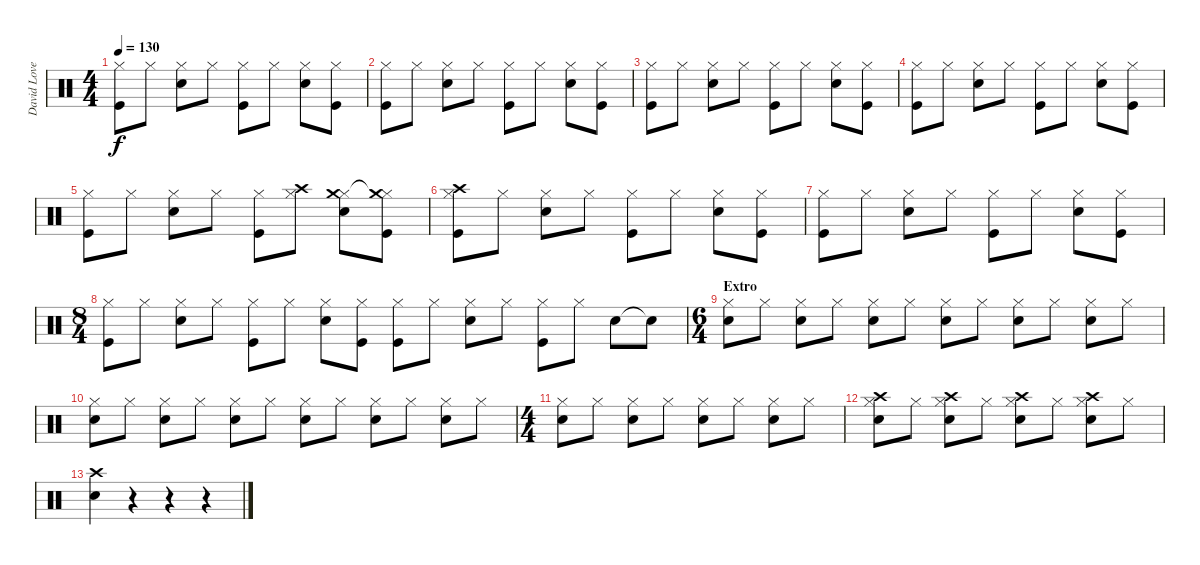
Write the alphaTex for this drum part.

\track ("David Lovering" "David Love") {instrument percussion}
\staff {score}
\articulation defaults
\ts (4 4)
\tempo 130
\clef neutral
\ks c
("Hi-Hat (closed)" "Kick (hit)").8{dy f} "Hi-Hat (closed)".8 ("Hi-Hat (closed)" "Snare (hit) 2").8 "Hi-Hat (closed)".8 ("Hi-Hat (closed)" "Kick (hit)").8 "Hi-Hat (closed)".8 ("Hi-Hat (closed)" "Snare (hit) 2").8 ("Hi-Hat (closed)" "Kick (hit)").8 |
("Hi-Hat (closed)" "Kick (hit)").8 "Hi-Hat (closed)".8 ("Hi-Hat (closed)" "Snare (hit) 2").8 "Hi-Hat (closed)".8 ("Hi-Hat (closed)" "Kick (hit)").8 "Hi-Hat (closed)".8 ("Hi-Hat (closed)" "Snare (hit) 2").8 ("Hi-Hat (closed)" "Kick (hit)").8 |
("Hi-Hat (closed)" "Kick (hit)").8 "Hi-Hat (closed)".8 ("Hi-Hat (closed)" "Snare (hit) 2").8 "Hi-Hat (closed)".8 ("Hi-Hat (closed)" "Kick (hit)").8 "Hi-Hat (closed)".8 ("Hi-Hat (closed)" "Snare (hit) 2").8 ("Hi-Hat (closed)" "Kick (hit)").8 |
("Hi-Hat (closed)" "Kick (hit)").8 "Hi-Hat (closed)".8 ("Hi-Hat (closed)" "Snare (hit) 2").8 "Hi-Hat (closed)".8 ("Hi-Hat (closed)" "Kick (hit)").8 "Hi-Hat (closed)".8 ("Hi-Hat (closed)" "Snare (hit) 2").8 ("Hi-Hat (closed)" "Kick (hit)").8 |
("Hi-Hat (closed)" "Kick (hit)").8 "Hi-Hat (closed)".8 ("Hi-Hat (closed)" "Snare (hit) 2").8 "Hi-Hat (closed)".8 ("Hi-Hat (closed)" "Kick (hit)").8 ("Hi-Hat (closed)" "Crash high (hit)").8 ("Hi-Hat (closed)" "Crash medium (hit)" "Snare (hit) 2").8 ("Hi-Hat (closed)" "Crash medium (hit)"{t} "Kick (hit)").8 |
("Hi-Hat (closed)" "Crash high (hit)" "Kick (hit)").8 "Hi-Hat (closed)".8 ("Hi-Hat (closed)" "Snare (hit) 2").8 "Hi-Hat (closed)".8 ("Hi-Hat (closed)" "Kick (hit)").8 "Hi-Hat (closed)".8 ("Hi-Hat (closed)" "Snare (hit) 2").8 ("Hi-Hat (closed)" "Kick (hit)").8 |
("Hi-Hat (closed)" "Kick (hit)").8 "Hi-Hat (closed)".8 ("Hi-Hat (closed)" "Snare (hit) 2").8 "Hi-Hat (closed)".8 ("Hi-Hat (closed)" "Kick (hit)").8 "Hi-Hat (closed)".8 ("Hi-Hat (closed)" "Snare (hit) 2").8 ("Hi-Hat (closed)" "Kick (hit)").8 |
\ts (8 4)
("Hi-Hat (closed)" "Kick (hit)").8 "Hi-Hat (closed)".8 ("Hi-Hat (closed)" "Snare (hit) 2").8 "Hi-Hat (closed)".8 ("Hi-Hat (closed)" "Kick (hit)").8 "Hi-Hat (closed)".8 ("Hi-Hat (closed)" "Snare (hit) 2").8 ("Hi-Hat (closed)" "Kick (hit)").8 ("Hi-Hat (closed)" "Kick (hit)").8 "Hi-Hat (closed)".8 ("Hi-Hat (closed)" "Snare (hit) 2").8 "Hi-Hat (closed)".8 ("Hi-Hat (closed)" "Kick (hit)").8 "Hi-Hat (closed)".8 "Snare (hit) 2".8 "Snare (hit) 2"{t}.8 |
\ts (6 4)
\section ("" "Extro")
("Hi-Hat (closed)" "Snare (hit) 2").8 "Hi-Hat (closed)".8 ("Hi-Hat (closed)" "Snare (hit) 2").8 "Hi-Hat (closed)".8 ("Hi-Hat (closed)" "Snare (hit) 2").8 "Hi-Hat (closed)".8 ("Hi-Hat (closed)" "Snare (hit) 2").8 "Hi-Hat (closed)".8 ("Hi-Hat (closed)" "Snare (hit) 2").8 "Hi-Hat (closed)".8 ("Hi-Hat (closed)" "Snare (hit) 2").8 "Hi-Hat (closed)".8 |
("Hi-Hat (closed)" "Snare (hit) 2").8 "Hi-Hat (closed)".8 ("Hi-Hat (closed)" "Snare (hit) 2").8 "Hi-Hat (closed)".8 ("Hi-Hat (closed)" "Snare (hit) 2").8 "Hi-Hat (closed)".8 ("Hi-Hat (closed)" "Snare (hit) 2").8 "Hi-Hat (closed)".8 ("Hi-Hat (closed)" "Snare (hit) 2").8 "Hi-Hat (closed)".8 ("Hi-Hat (closed)" "Snare (hit) 2").8 "Hi-Hat (closed)".8 |
\ts (4 4)
("Hi-Hat (closed)" "Snare (hit) 2").8 "Hi-Hat (closed)".8 ("Hi-Hat (closed)" "Snare (hit) 2").8 "Hi-Hat (closed)".8 ("Hi-Hat (closed)" "Snare (hit) 2").8 "Hi-Hat (closed)".8 ("Hi-Hat (closed)" "Snare (hit) 2").8 "Hi-Hat (closed)".8 |
("Hi-Hat (closed)" "Crash high (hit)" "Snare (hit) 2").8 "Hi-Hat (closed)".8 ("Hi-Hat (closed)" "Crash high (hit)" "Snare (hit) 2").8 "Hi-Hat (closed)".8 ("Hi-Hat (closed)" "Crash high (hit)" "Snare (hit) 2").8 "Hi-Hat (closed)".8 ("Hi-Hat (closed)" "Crash high (hit)" "Snare (hit) 2").8 "Hi-Hat (closed)".8 |
("Crash high (hit)" "Snare (hit) 2").4 r.4 r.4 r.4
